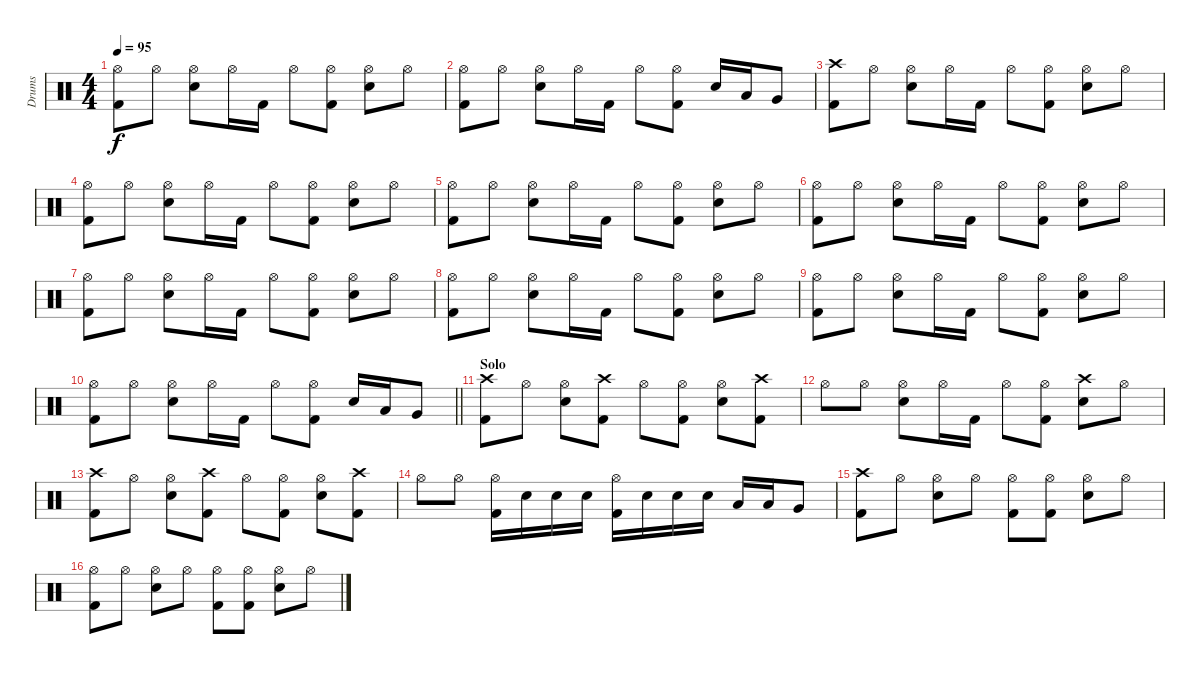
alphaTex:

\track ("Drums" "Drums") {instrument percussion}
\staff {score}
\articulation defaults
\ts (4 4)
\tempo 95
\clef neutral
\ks c
("Hi-Hat (open)" "Kick (hit) 2").8{dy f} "Hi-Hat (open)".8 ("Hi-Hat (open)" "Electric Snare (hit)").8 "Hi-Hat (open)".16 "Kick (hit) 2".16 "Hi-Hat (open)".8 ("Hi-Hat (open)" "Kick (hit) 2").8 ("Hi-Hat (open)" "Electric Snare (hit)").8 "Hi-Hat (open)".8 |
("Hi-Hat (open)" "Kick (hit) 2").8 "Hi-Hat (open)".8 ("Hi-Hat (open)" "Electric Snare (hit)").8 "Hi-Hat (open)".16 "Kick (hit) 2".16 "Hi-Hat (open)".8 ("Hi-Hat (open)" "Kick (hit) 2").8 "Electric Snare (hit)".16 "Low Tom (hit)".16 "Very Low Tom (hit)".8 |
("Crash high (hit)" "Kick (hit) 2").8 "Hi-Hat (open)".8 ("Hi-Hat (open)" "Electric Snare (hit)").8 "Hi-Hat (open)".16 "Kick (hit) 2".16 "Hi-Hat (open)".8 ("Hi-Hat (open)" "Kick (hit) 2").8 ("Hi-Hat (open)" "Electric Snare (hit)").8 "Hi-Hat (open)".8 |
("Hi-Hat (open)" "Kick (hit) 2").8 "Hi-Hat (open)".8 ("Hi-Hat (open)" "Electric Snare (hit)").8 "Hi-Hat (open)".16 "Kick (hit) 2".16 "Hi-Hat (open)".8 ("Hi-Hat (open)" "Kick (hit) 2").8 ("Hi-Hat (open)" "Electric Snare (hit)").8 "Hi-Hat (open)".8 |
("Hi-Hat (open)" "Kick (hit) 2").8 "Hi-Hat (open)".8 ("Hi-Hat (open)" "Electric Snare (hit)").8 "Hi-Hat (open)".16 "Kick (hit) 2".16 "Hi-Hat (open)".8 ("Hi-Hat (open)" "Kick (hit) 2").8 ("Hi-Hat (open)" "Electric Snare (hit)").8 "Hi-Hat (open)".8 |
("Hi-Hat (open)" "Kick (hit) 2").8 "Hi-Hat (open)".8 ("Hi-Hat (open)" "Electric Snare (hit)").8 "Hi-Hat (open)".16 "Kick (hit) 2".16 "Hi-Hat (open)".8 ("Hi-Hat (open)" "Kick (hit) 2").8 ("Hi-Hat (open)" "Electric Snare (hit)").8 "Hi-Hat (open)".8 |
("Hi-Hat (open)" "Kick (hit) 2").8 "Hi-Hat (open)".8 ("Hi-Hat (open)" "Electric Snare (hit)").8 "Hi-Hat (open)".16 "Kick (hit) 2".16 "Hi-Hat (open)".8 ("Hi-Hat (open)" "Kick (hit) 2").8 ("Hi-Hat (open)" "Electric Snare (hit)").8 "Hi-Hat (open)".8 |
("Hi-Hat (open)" "Kick (hit) 2").8 "Hi-Hat (open)".8 ("Hi-Hat (open)" "Electric Snare (hit)").8 "Hi-Hat (open)".16 "Kick (hit) 2".16 "Hi-Hat (open)".8 ("Hi-Hat (open)" "Kick (hit) 2").8 ("Hi-Hat (open)" "Electric Snare (hit)").8 "Hi-Hat (open)".8 |
("Hi-Hat (open)" "Kick (hit) 2").8 "Hi-Hat (open)".8 ("Hi-Hat (open)" "Electric Snare (hit)").8 "Hi-Hat (open)".16 "Kick (hit) 2".16 "Hi-Hat (open)".8 ("Hi-Hat (open)" "Kick (hit) 2").8 ("Hi-Hat (open)" "Electric Snare (hit)").8 "Hi-Hat (open)".8 |
\barLineRight lightlight
("Hi-Hat (open)" "Kick (hit) 2").8 "Hi-Hat (open)".8 ("Hi-Hat (open)" "Electric Snare (hit)").8 "Hi-Hat (open)".16 "Kick (hit) 2".16 "Hi-Hat (open)".8 ("Hi-Hat (open)" "Kick (hit) 2").8 "Electric Snare (hit)".16 "Low Tom (hit)".16 "Very Low Tom (hit)".8 |
\section ("" "Solo")
("Crash high (hit)" "Kick (hit) 2").8 "Hi-Hat (open)".8 ("Hi-Hat (open)" "Electric Snare (hit)").8 ("Crash high (hit)" "Kick (hit) 2").8 "Hi-Hat (open)".8 ("Hi-Hat (open)" "Kick (hit) 2").8 ("Hi-Hat (open)" "Electric Snare (hit)").8 ("Crash high (hit)" "Kick (hit) 2").8 |
"Hi-Hat (open)".8 "Hi-Hat (open)".8 ("Hi-Hat (open)" "Electric Snare (hit)").8 "Hi-Hat (open)".16 "Kick (hit) 2".16 "Hi-Hat (open)".8 ("Hi-Hat (open)" "Kick (hit) 2").8 ("Crash high (hit)" "Electric Snare (hit)").8 "Hi-Hat (open)".8 |
("Crash high (hit)" "Kick (hit) 2").8 "Hi-Hat (open)".8 ("Hi-Hat (open)" "Electric Snare (hit)").8 ("Crash high (hit)" "Kick (hit) 2").8 "Hi-Hat (open)".8 ("Hi-Hat (open)" "Kick (hit) 2").8 ("Hi-Hat (open)" "Electric Snare (hit)").8 ("Crash high (hit)" "Kick (hit) 2").8 |
"Hi-Hat (open)".8 "Hi-Hat (open)".8 ("Hi-Hat (open)" "Kick (hit) 2").16 "Electric Snare (hit)".16 "Electric Snare (hit)".16 "Electric Snare (hit)".16 ("Hi-Hat (open)" "Kick (hit) 2").16 "Electric Snare (hit)".16 "Electric Snare (hit)".16 "Electric Snare (hit)".16 "Low Tom (hit)".16 "Low Tom (hit)".16 "Very Low Tom (hit)".8 |
("Crash high (hit)" "Kick (hit) 2").8 "Hi-Hat (open)".8 ("Hi-Hat (open)" "Electric Snare (hit)").8 "Hi-Hat (open)".8 ("Hi-Hat (open)" "Kick (hit) 2").8 ("Hi-Hat (open)" "Kick (hit) 2").8 ("Hi-Hat (open)" "Electric Snare (hit)").8 "Hi-Hat (open)".8 |
("Hi-Hat (open)" "Kick (hit) 2").8 "Hi-Hat (open)".8 ("Hi-Hat (open)" "Electric Snare (hit)").8 "Hi-Hat (open)".8 ("Hi-Hat (open)" "Kick (hit) 2").8 ("Hi-Hat (open)" "Kick (hit) 2").8 ("Hi-Hat (open)" "Electric Snare (hit)").8 "Hi-Hat (open)".8
